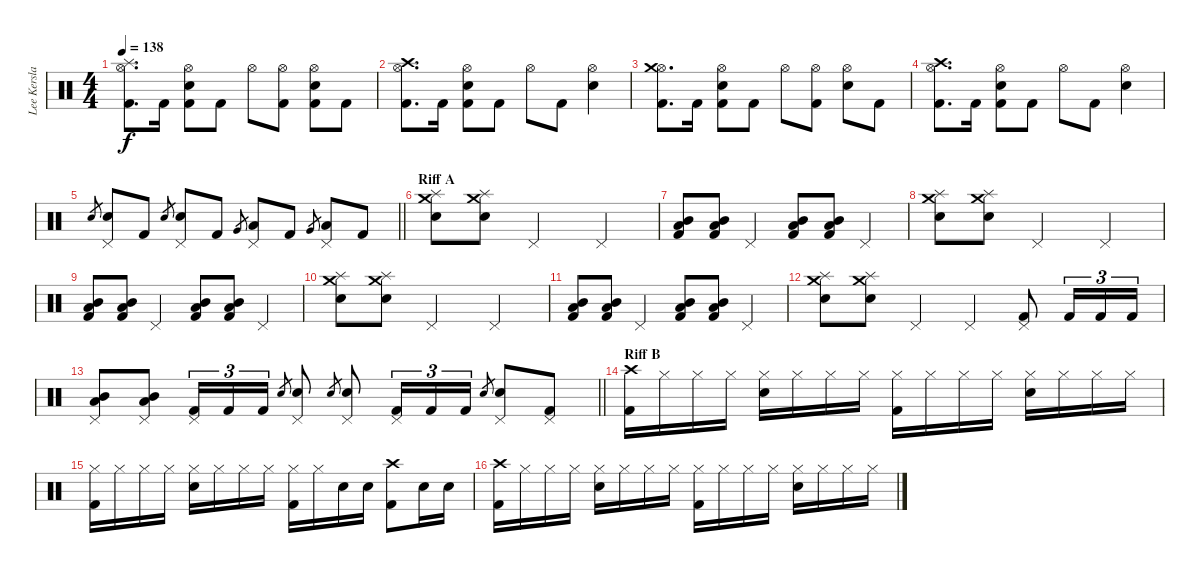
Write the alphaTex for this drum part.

\track ("Lee Kerslake" "Lee Kersla") {instrument percussion}
\staff {score}
\articulation defaults
\ts (4 4)
\tempo 138
\clef neutral
\ks c
("Hi-Hat (open)" "Splash (hit)" "Kick (hit) 2").8{d dy f} "Kick (hit) 2".16 ("Hi-Hat (open)" "Snare (hit) 2" "Kick (hit) 2").8 "Kick (hit) 2".8 "Hi-Hat (open)".8 ("Hi-Hat (open)" "Kick (hit) 2").8 ("Hi-Hat (open)" "Snare (hit) 2" "Kick (hit) 2").8 "Kick (hit) 2".8 |
("Hi-Hat (open)" "Crash high (hit)" "Kick (hit) 2").8{d} "Kick (hit) 2".16 ("Hi-Hat (open)" "Snare (hit) 2" "Kick (hit) 2").8 "Kick (hit) 2".8 "Hi-Hat (open)".8 "Kick (hit) 2".8 ("Hi-Hat (open)" "Snare (hit) 2").4 |
("Hi-Hat (open)" "Crash medium (hit)" "Kick (hit) 2").8{d} "Kick (hit) 2".16 ("Hi-Hat (open)" "Snare (hit) 2" "Kick (hit) 2").8 "Kick (hit) 2".8 "Hi-Hat (open)".8 ("Hi-Hat (open)" "Kick (hit) 2").8 ("Hi-Hat (open)" "Snare (hit) 2").8 "Kick (hit) 2".8 |
("Hi-Hat (open)" "Crash high (hit)" "Kick (hit) 2").8{d} "Kick (hit) 2".16 ("Hi-Hat (open)" "Snare (hit) 2" "Kick (hit) 2").8 "Kick (hit) 2".8 "Hi-Hat (open)".8 "Kick (hit) 2".8 ("Hi-Hat (open)" "Snare (hit) 2").4 |
\barLineRight lightlight "Snare (hit) 2".8{gr}
("Pedal Hi-Hat (hit)" "Snare (hit) 2").8 "Kick (hit) 2".8 "Snare (hit) 2".8{gr} ("Pedal Hi-Hat (hit)" "Snare (hit) 2").8 "Kick (hit) 2".8 "Very Low Tom (hit)".8{gr} ("Pedal Hi-Hat (hit)" "Low Tom (hit)").8 "Kick (hit) 2".8 "Very Low Tom (hit)".8{gr} ("Pedal Hi-Hat (hit)" "Low Tom (hit)").8 "Kick (hit) 2".8 |
\section ("" "Riff A")
("Snare (hit) 2" "Crash medium (hit)" "Splash (hit)").8 ("Snare (hit) 2" "Crash medium (hit)" "Splash (hit)").8 "Pedal Hi-Hat (hit)".2 "Pedal Hi-Hat (hit)".4 |
("Mid Tom (hit)" "Low Tom (hit)" "Kick (hit) 2").8 ("Mid Tom (hit)" "Low Tom (hit)" "Kick (hit) 2").8 "Pedal Hi-Hat (hit)".4 ("Mid Tom (hit)" "Low Tom (hit)" "Kick (hit) 2").8 ("Mid Tom (hit)" "Low Tom (hit)" "Kick (hit) 2").8 "Pedal Hi-Hat (hit)".4 |
("Snare (hit) 2" "Crash medium (hit)" "Splash (hit)").8 ("Snare (hit) 2" "Crash medium (hit)" "Splash (hit)").8 "Pedal Hi-Hat (hit)".2 "Pedal Hi-Hat (hit)".4 |
("Mid Tom (hit)" "Low Tom (hit)" "Kick (hit) 2").8 ("Mid Tom (hit)" "Low Tom (hit)" "Kick (hit) 2").8 "Pedal Hi-Hat (hit)".4 ("Mid Tom (hit)" "Low Tom (hit)" "Kick (hit) 2").8 ("Mid Tom (hit)" "Low Tom (hit)" "Kick (hit) 2").8 "Pedal Hi-Hat (hit)".4 |
("Snare (hit) 2" "Crash medium (hit)" "Splash (hit)").8 ("Snare (hit) 2" "Crash medium (hit)" "Splash (hit)").8 "Pedal Hi-Hat (hit)".2 "Pedal Hi-Hat (hit)".4 |
("Mid Tom (hit)" "Low Tom (hit)" "Kick (hit) 2").8 ("Mid Tom (hit)" "Low Tom (hit)" "Kick (hit) 2").8 "Pedal Hi-Hat (hit)".4 ("Mid Tom (hit)" "Low Tom (hit)" "Kick (hit) 2").8 ("Mid Tom (hit)" "Low Tom (hit)" "Kick (hit) 2").8 "Pedal Hi-Hat (hit)".4 |
("Snare (hit) 2" "Crash medium (hit)" "Splash (hit)").8 ("Snare (hit) 2" "Crash medium (hit)" "Splash (hit)").8 "Pedal Hi-Hat (hit)".4 "Pedal Hi-Hat (hit)".4 ("Pedal Hi-Hat (hit)" "Kick (hit) 2").8 "Kick (hit) 2".16{tu (3 2)} "Kick (hit) 2".16{tu (3 2)} "Kick (hit) 2".16{tu (3 2)} |
\barLineRight lightlight
("Pedal Hi-Hat (hit)" "Mid Tom (hit)" "Low Tom (hit)").8 ("Pedal Hi-Hat (hit)" "Mid Tom (hit)" "Low Tom (hit)").8 ("Pedal Hi-Hat (hit)" "Kick (hit) 2").16{tu (3 2)} "Kick (hit) 2".16{tu (3 2)} "Kick (hit) 2".16{tu (3 2)} "Snare (hit) 2".8{gr} ("Pedal Hi-Hat (hit)" "Snare (hit) 2").8 "Snare (hit) 2".8{gr} ("Pedal Hi-Hat (hit)" "Snare (hit) 2").8 ("Pedal Hi-Hat (hit)" "Kick (hit) 2").16{tu (3 2)} "Kick (hit) 2".16{tu (3 2)} "Kick (hit) 2".16{tu (3 2)} "Snare (hit) 2".8{gr} ("Pedal Hi-Hat (hit)" "Snare (hit) 2").8 ("Pedal Hi-Hat (hit)" "Kick (hit) 2").8 |
\section ("" "Riff B")
("Crash high (hit)" "Kick (hit) 2").16 "Hi-Hat (closed)".16 "Hi-Hat (closed)".16 "Hi-Hat (closed)".16 ("Hi-Hat (closed)" "Snare (hit) 2").16 "Hi-Hat (closed)".16 "Hi-Hat (closed)".16 "Hi-Hat (closed)".16 ("Hi-Hat (closed)" "Kick (hit) 2").16 "Hi-Hat (closed)".16 "Hi-Hat (closed)".16 "Hi-Hat (closed)".16 ("Hi-Hat (closed)" "Snare (hit) 2").16 "Hi-Hat (closed)".16 "Hi-Hat (closed)".16 "Hi-Hat (closed)".16 |
("Hi-Hat (closed)" "Kick (hit) 2").16 "Hi-Hat (closed)".16 "Hi-Hat (closed)".16 "Hi-Hat (closed)".16 ("Hi-Hat (closed)" "Snare (hit) 2").16 "Hi-Hat (closed)".16 "Hi-Hat (closed)".16 "Hi-Hat (closed)".16 ("Hi-Hat (closed)" "Kick (hit) 2").16 "Hi-Hat (closed)".16 "Snare (hit) 2".16 "Snare (hit) 2".16 ("Crash high (hit)" "Kick (hit) 2").8 "Snare (hit) 2".16 "Snare (hit) 2".16 |
("Crash high (hit)" "Kick (hit) 2").16 "Hi-Hat (closed)".16 "Hi-Hat (closed)".16 "Hi-Hat (closed)".16 ("Hi-Hat (closed)" "Snare (hit) 2").16 "Hi-Hat (closed)".16 "Hi-Hat (closed)".16 "Hi-Hat (closed)".16 ("Hi-Hat (closed)" "Kick (hit) 2").16 "Hi-Hat (closed)".16 "Hi-Hat (closed)".16 "Hi-Hat (closed)".16 ("Hi-Hat (closed)" "Snare (hit) 2").16 "Hi-Hat (closed)".16 "Hi-Hat (closed)".16 "Hi-Hat (closed)".16
